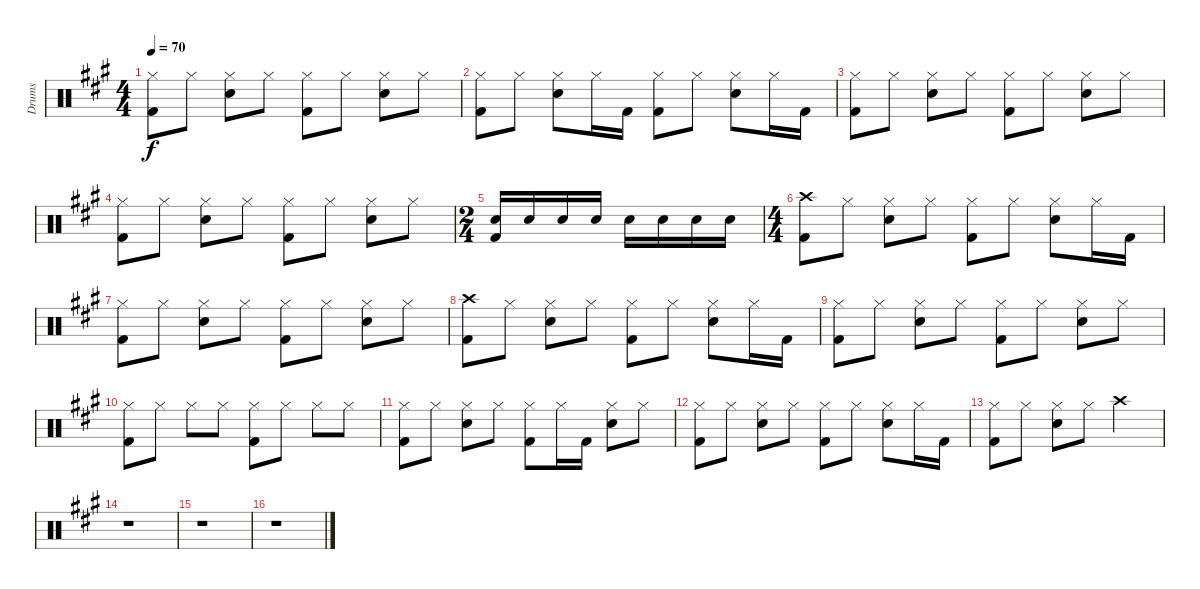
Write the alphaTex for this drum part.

\track ("Drums" "Drums") {instrument percussion}
\staff {score}
\articulation defaults
\ts (4 4)
\tempo 70
\clef neutral
\ks a
("Hi-Hat (closed)" "Kick (hit) 2").8{dy f} "Hi-Hat (closed)".8 ("Hi-Hat (closed)" "Electric Snare (hit)").8 "Hi-Hat (closed)".8 ("Hi-Hat (closed)" "Kick (hit) 2").8 "Hi-Hat (closed)".8 ("Hi-Hat (closed)" "Electric Snare (hit)").8 "Hi-Hat (closed)".8 |
("Hi-Hat (closed)" "Kick (hit) 2").8 "Hi-Hat (closed)".8 ("Hi-Hat (closed)" "Electric Snare (hit)").8 "Hi-Hat (closed)".16 "Kick (hit) 2".16 ("Hi-Hat (closed)" "Kick (hit) 2").8 "Hi-Hat (closed)".8 ("Hi-Hat (closed)" "Electric Snare (hit)").8 "Hi-Hat (closed)".16 "Kick (hit) 2".16 |
("Hi-Hat (closed)" "Kick (hit) 2").8 "Hi-Hat (closed)".8 ("Hi-Hat (closed)" "Electric Snare (hit)").8 "Hi-Hat (closed)".8 ("Hi-Hat (closed)" "Kick (hit) 2").8 "Hi-Hat (closed)".8 ("Hi-Hat (closed)" "Electric Snare (hit)").8 "Hi-Hat (closed)".8 |
("Hi-Hat (closed)" "Kick (hit) 2").8 "Hi-Hat (closed)".8 ("Hi-Hat (closed)" "Electric Snare (hit)").8 "Hi-Hat (closed)".8 ("Hi-Hat (closed)" "Kick (hit) 2").8 "Hi-Hat (closed)".8 ("Hi-Hat (closed)" "Electric Snare (hit)").8 "Hi-Hat (closed)".8 |
\ts (2 4)
("Electric Snare (hit)" "Kick (hit) 2").16 "Electric Snare (hit)".16 "Electric Snare (hit)".16 "Electric Snare (hit)".16 "Electric Snare (hit)".16 "Electric Snare (hit)".16 "Electric Snare (hit)".16 "Electric Snare (hit)".16 |
\ts (4 4)
("Crash high (hit)" "Kick (hit) 2").8 "Hi-Hat (closed)".8 ("Hi-Hat (closed)" "Electric Snare (hit)").8 "Hi-Hat (closed)".8 ("Hi-Hat (closed)" "Kick (hit) 2").8 "Hi-Hat (closed)".8 ("Hi-Hat (closed)" "Electric Snare (hit)").8 "Hi-Hat (closed)".16 "Kick (hit) 2".16 |
("Hi-Hat (closed)" "Kick (hit) 2").8 "Hi-Hat (closed)".8 ("Hi-Hat (closed)" "Electric Snare (hit)").8 "Hi-Hat (closed)".8 ("Hi-Hat (closed)" "Kick (hit) 2").8 "Hi-Hat (closed)".8 ("Hi-Hat (closed)" "Electric Snare (hit)").8 "Hi-Hat (closed)".8 |
("Crash high (hit)" "Kick (hit) 2").8 "Hi-Hat (closed)".8 ("Hi-Hat (closed)" "Electric Snare (hit)").8 "Hi-Hat (closed)".8 ("Hi-Hat (closed)" "Kick (hit) 2").8 "Hi-Hat (closed)".8 ("Hi-Hat (closed)" "Electric Snare (hit)").8 "Hi-Hat (closed)".16 "Kick (hit) 2".16 |
("Hi-Hat (closed)" "Kick (hit) 2").8 "Hi-Hat (closed)".8 ("Hi-Hat (closed)" "Electric Snare (hit)").8 "Hi-Hat (closed)".8 ("Hi-Hat (closed)" "Kick (hit) 2").8 "Hi-Hat (closed)".8 ("Hi-Hat (closed)" "Electric Snare (hit)").8 "Hi-Hat (closed)".8 |
("Hi-Hat (closed)" "Kick (hit) 2").8 "Hi-Hat (closed)".8 "Hi-Hat (closed)".8 "Hi-Hat (closed)".8 ("Hi-Hat (closed)" "Kick (hit) 2").8 "Hi-Hat (closed)".8 "Hi-Hat (closed)".8 "Hi-Hat (closed)".8 |
("Hi-Hat (closed)" "Kick (hit) 2").8 "Hi-Hat (closed)".8 ("Hi-Hat (closed)" "Electric Snare (hit)").8 "Hi-Hat (closed)".8 ("Hi-Hat (closed)" "Kick (hit) 2").8 "Hi-Hat (closed)".16 "Kick (hit) 2".16 ("Hi-Hat (closed)" "Electric Snare (hit)").8 "Hi-Hat (closed)".8 |
("Hi-Hat (closed)" "Kick (hit) 2").8 "Hi-Hat (closed)".8 ("Hi-Hat (closed)" "Electric Snare (hit)").8 "Hi-Hat (closed)".8 ("Hi-Hat (closed)" "Kick (hit) 2").8 "Hi-Hat (closed)".8 ("Hi-Hat (closed)" "Electric Snare (hit)").8 "Hi-Hat (closed)".16 "Kick (hit) 2".16 |
("Hi-Hat (closed)" "Kick (hit) 2").8 "Hi-Hat (closed)".8 ("Hi-Hat (closed)" "Electric Snare (hit)").8 "Hi-Hat (closed)".8 "Crash high (hit)"{tr (49 32)}.2 |
r.1 |
r.1 |
r.1
